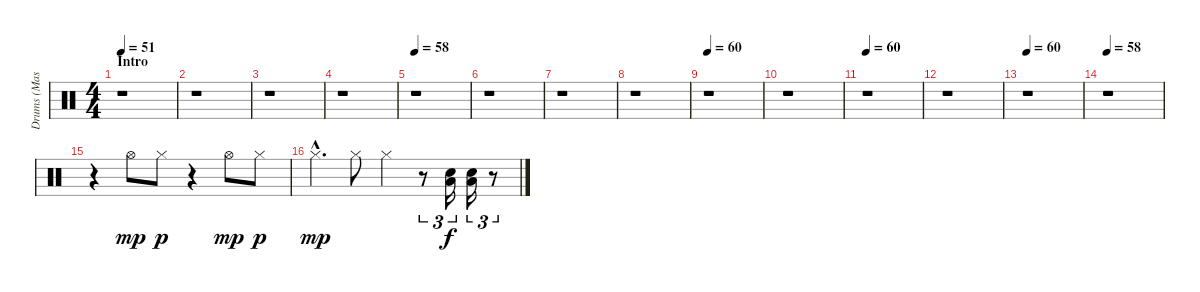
\track ("Drums (Mason)" "Drums (Mas") {instrument percussion}
\staff {score}
\articulation defaults
\ts (4 4)
\section ("" "Intro")
\tempo 51
\tempo 57
\tempo 51
\clef neutral
\ks c
r.1{dy mp volume 12} |
r.1 |
r.1 |
r.1 |
\tempo 58
r.1 |
r.1 |
r.1 |
r.1 |
\tempo 60
r.1 |
r.1 |
\tempo 60
r.1 |
r.1 |
\tempo 60
r.1 |
\tempo 58
r.1 |
r.4 "Hi-Hat (open)".8 "Hi-Hat (closed)".8{dy p} r.4 "Hi-Hat (open)".8{dy mp} "Hi-Hat (closed)".8{dy p} |
"Hi-Hat (closed)"{hac}.4{d dy mp} "Hi-Hat (closed)".8 "Hi-Hat (closed)".4 r.8{tu (3 2)} ("Electric Snare (hit)" "Low Tom (hit)").16{tu (3 2) dy f} ("Electric Snare (hit)" "Low Tom (hit)").16{tu (3 2)} r.8{tu (3 2)}
